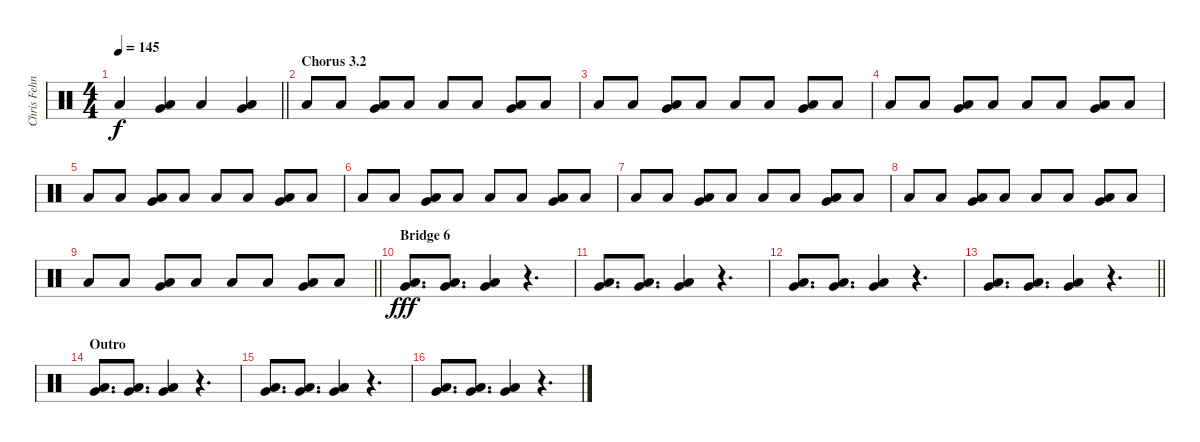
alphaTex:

\track ("Chris Fehn" "Chris Fehn") {instrument percussion}
\staff {score}
\articulation defaults
\ts (4 4)
\tempo 145
\clef neutral
\barLineRight lightlight
\ks c "Low Floor Tom (hit)".4{dy f}
("Very Low Tom (hit)" "Low Floor Tom (hit)").4 "Low Floor Tom (hit)".4 ("Very Low Tom (hit)" "Low Floor Tom (hit)").4 |
\section ("" "Chorus 3.2")
"Low Floor Tom (hit)".8 "Low Floor Tom (hit)".8 ("Very Low Tom (hit)" "Low Floor Tom (hit)").8 "Low Floor Tom (hit)".8 "Low Floor Tom (hit)".8 "Low Floor Tom (hit)".8 ("Very Low Tom (hit)" "Low Floor Tom (hit)").8 "Low Floor Tom (hit)".8 |
"Low Floor Tom (hit)".8 "Low Floor Tom (hit)".8 ("Very Low Tom (hit)" "Low Floor Tom (hit)").8 "Low Floor Tom (hit)".8 "Low Floor Tom (hit)".8 "Low Floor Tom (hit)".8 ("Very Low Tom (hit)" "Low Floor Tom (hit)").8 "Low Floor Tom (hit)".8 |
"Low Floor Tom (hit)".8 "Low Floor Tom (hit)".8 ("Very Low Tom (hit)" "Low Floor Tom (hit)").8 "Low Floor Tom (hit)".8 "Low Floor Tom (hit)".8 "Low Floor Tom (hit)".8 ("Very Low Tom (hit)" "Low Floor Tom (hit)").8 "Low Floor Tom (hit)".8 |
"Low Floor Tom (hit)".8 "Low Floor Tom (hit)".8 ("Very Low Tom (hit)" "Low Floor Tom (hit)").8 "Low Floor Tom (hit)".8 "Low Floor Tom (hit)".8 "Low Floor Tom (hit)".8 ("Very Low Tom (hit)" "Low Floor Tom (hit)").8 "Low Floor Tom (hit)".8 |
"Low Floor Tom (hit)".8 "Low Floor Tom (hit)".8 ("Very Low Tom (hit)" "Low Floor Tom (hit)").8 "Low Floor Tom (hit)".8 "Low Floor Tom (hit)".8 "Low Floor Tom (hit)".8 ("Very Low Tom (hit)" "Low Floor Tom (hit)").8 "Low Floor Tom (hit)".8 |
"Low Floor Tom (hit)".8 "Low Floor Tom (hit)".8 ("Very Low Tom (hit)" "Low Floor Tom (hit)").8 "Low Floor Tom (hit)".8 "Low Floor Tom (hit)".8 "Low Floor Tom (hit)".8 ("Very Low Tom (hit)" "Low Floor Tom (hit)").8 "Low Floor Tom (hit)".8 |
"Low Floor Tom (hit)".8 "Low Floor Tom (hit)".8 ("Very Low Tom (hit)" "Low Floor Tom (hit)").8 "Low Floor Tom (hit)".8 "Low Floor Tom (hit)".8 "Low Floor Tom (hit)".8 ("Very Low Tom (hit)" "Low Floor Tom (hit)").8 "Low Floor Tom (hit)".8 |
\barLineRight lightlight "Low Floor Tom (hit)".8 "Low Floor Tom (hit)".8
("Very Low Tom (hit)" "Low Floor Tom (hit)").8 "Low Floor Tom (hit)".8 "Low Floor Tom (hit)".8 "Low Floor Tom (hit)".8 ("Very Low Tom (hit)" "Low Floor Tom (hit)").8 "Low Floor Tom (hit)".8 |
\section ("" "Bridge 6")
("Very Low Tom (hit)" "Low Floor Tom (hit)").8{d dy fff} ("Very Low Tom (hit)" "Low Floor Tom (hit)").8{d} ("Very Low Tom (hit)" "Low Floor Tom (hit)").4 r.4{d} |
("Very Low Tom (hit)" "Low Floor Tom (hit)").8{d} ("Very Low Tom (hit)" "Low Floor Tom (hit)").8{d} ("Very Low Tom (hit)" "Low Floor Tom (hit)").4 r.4{d} |
("Very Low Tom (hit)" "Low Floor Tom (hit)").8{d} ("Very Low Tom (hit)" "Low Floor Tom (hit)").8{d} ("Very Low Tom (hit)" "Low Floor Tom (hit)").4 r.4{d} |
\barLineRight lightlight
("Very Low Tom (hit)" "Low Floor Tom (hit)").8{d} ("Very Low Tom (hit)" "Low Floor Tom (hit)").8{d} ("Very Low Tom (hit)" "Low Floor Tom (hit)").4 r.4{d} |
\section ("" "Outro")
("Very Low Tom (hit)" "Low Floor Tom (hit)").8{d} ("Very Low Tom (hit)" "Low Floor Tom (hit)").8{d} ("Very Low Tom (hit)" "Low Floor Tom (hit)").4 r.4{d} |
("Very Low Tom (hit)" "Low Floor Tom (hit)").8{d} ("Very Low Tom (hit)" "Low Floor Tom (hit)").8{d} ("Very Low Tom (hit)" "Low Floor Tom (hit)").4 r.4{d} |
("Very Low Tom (hit)" "Low Floor Tom (hit)").8{d} ("Very Low Tom (hit)" "Low Floor Tom (hit)").8{d} ("Very Low Tom (hit)" "Low Floor Tom (hit)").4 r.4{d}
